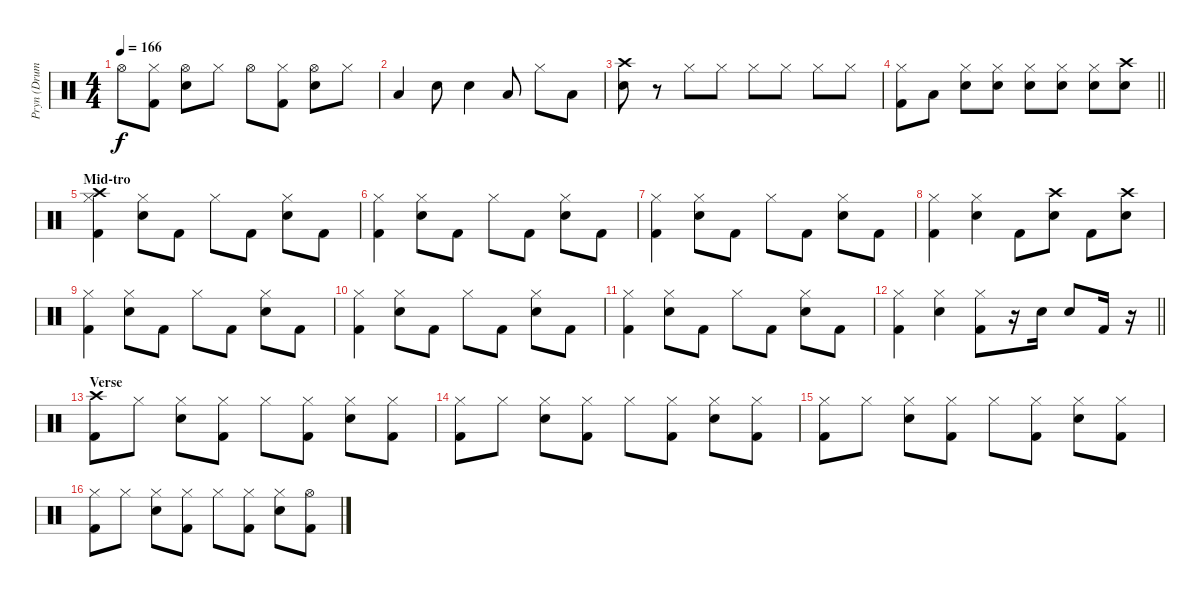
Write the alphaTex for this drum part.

\track ("Pryn (Drums)" "Pryn (Drum") {instrument percussion}
\staff {score}
\articulation defaults
\ts (4 4)
\tempo 166
\clef neutral
\ks c "Hi-Hat (open)".8{dy f}
("Hi-Hat (closed)" "Kick (hit) 2").8 ("Hi-Hat (open)" "Snare (hit) 2").8 "Hi-Hat (closed)".8 "Hi-Hat (open)".8 ("Hi-Hat (closed)" "Kick (hit) 2").8 ("Hi-Hat (open)" "Snare (hit) 2").8 "Hi-Hat (closed)".8 |
"Low Floor Tom (hit)".4 "Snare (hit) 2".8 "Electric Snare (hit)".4 "Low Floor Tom (hit)".8 "Hi-Hat (closed)".8 "Low Floor Tom (hit)".8 |
("Crash high (hit)" "Snare (hit) 2").8 r.8 "Hi-Hat (closed)".8 "Hi-Hat (closed)".8 "Hi-Hat (closed)".8 "Hi-Hat (closed)".8 "Hi-Hat (closed)".8 "Hi-Hat (closed)".8 |
\barLineRight lightlight
("Hi-Hat (closed)" "Kick (hit) 2").8 "Low Floor Tom (hit)".8 ("Hi-Hat (closed)" "Snare (hit) 2").8 ("Hi-Hat (closed)" "Snare (hit) 2").8 ("Hi-Hat (closed)" "Snare (hit) 2").8 ("Hi-Hat (closed)" "Snare (hit) 2").8 ("Hi-Hat (closed)" "Snare (hit) 2").8 ("Crash high (hit)" "Snare (hit) 2").8 |
\section ("" "Mid-tro")
("Hi-Hat (closed)" "Crash high (hit)" "Kick (hit) 2").4 ("Hi-Hat (closed)" "Snare (hit) 2").8 "Kick (hit) 2".8 "Hi-Hat (closed)".8 "Kick (hit) 2".8 ("Hi-Hat (closed)" "Snare (hit) 2").8 "Kick (hit) 2".8 |
("Hi-Hat (closed)" "Kick (hit) 2").4 ("Hi-Hat (closed)" "Snare (hit) 2").8 "Kick (hit) 2".8 "Hi-Hat (closed)".8 "Kick (hit) 2".8 ("Hi-Hat (closed)" "Snare (hit) 2").8 "Kick (hit) 2".8 |
("Hi-Hat (closed)" "Kick (hit) 2").4 ("Hi-Hat (closed)" "Snare (hit) 2").8 "Kick (hit) 2".8 "Hi-Hat (closed)".8 "Kick (hit) 2".8 ("Hi-Hat (closed)" "Snare (hit) 2").8 "Kick (hit) 2".8 |
("Hi-Hat (closed)" "Kick (hit) 2").4 ("Hi-Hat (closed)" "Snare (hit) 2").4 "Kick (hit) 2".8 ("Electric Snare (hit)" "Crash high (hit)").8 "Kick (hit) 2".8 ("Electric Snare (hit)" "Crash high (hit)").8 |
("Hi-Hat (closed)" "Kick (hit) 2").4 ("Hi-Hat (closed)" "Snare (hit) 2").8 "Kick (hit) 2".8 "Hi-Hat (closed)".8 "Kick (hit) 2".8 ("Hi-Hat (closed)" "Snare (hit) 2").8 "Kick (hit) 2".8 |
("Hi-Hat (closed)" "Kick (hit) 2").4 ("Hi-Hat (closed)" "Snare (hit) 2").8 "Kick (hit) 2".8 "Hi-Hat (closed)".8 "Kick (hit) 2".8 ("Hi-Hat (closed)" "Snare (hit) 2").8 "Kick (hit) 2".8 |
("Hi-Hat (closed)" "Kick (hit) 2").4 ("Hi-Hat (closed)" "Snare (hit) 2").8 "Kick (hit) 2".8 "Hi-Hat (closed)".8 "Kick (hit) 2".8 ("Hi-Hat (closed)" "Snare (hit) 2").8 "Kick (hit) 2".8 |
\barLineRight lightlight
("Hi-Hat (closed)" "Kick (hit) 2").4 ("Hi-Hat (closed)" "Snare (hit) 2").4 ("Kick (hit) 2" "Hi-Hat (closed)").8 r.16 "Snare (hit) 2".16 "Snare (hit) 2".8 "Kick (hit) 2".16 r.16 |
\section ("" "Verse")
("Crash high (hit)" "Kick (hit) 2").8 "Hi-Hat (closed)".8 ("Hi-Hat (closed)" "Snare (hit) 2").8 ("Hi-Hat (closed)" "Kick (hit) 2").8 "Hi-Hat (closed)".8 ("Kick (hit) 2" "Hi-Hat (closed)").8 ("Hi-Hat (closed)" "Snare (hit) 2").8 ("Hi-Hat (closed)" "Kick (hit) 2").8 |
("Hi-Hat (closed)" "Kick (hit) 2").8 "Hi-Hat (closed)".8 ("Hi-Hat (closed)" "Snare (hit) 2").8 ("Hi-Hat (closed)" "Kick (hit) 2").8 "Hi-Hat (closed)".8 ("Kick (hit) 2" "Hi-Hat (closed)").8 ("Hi-Hat (closed)" "Snare (hit) 2").8 ("Hi-Hat (closed)" "Kick (hit) 2").8 |
("Hi-Hat (closed)" "Kick (hit) 2").8 "Hi-Hat (closed)".8 ("Hi-Hat (closed)" "Snare (hit) 2").8 ("Hi-Hat (closed)" "Kick (hit) 2").8 "Hi-Hat (closed)".8 ("Kick (hit) 2" "Hi-Hat (closed)").8 ("Hi-Hat (closed)" "Snare (hit) 2").8 ("Hi-Hat (closed)" "Kick (hit) 2").8 |
("Hi-Hat (closed)" "Kick (hit) 2").8 "Hi-Hat (closed)".8 ("Hi-Hat (closed)" "Snare (hit) 2").8 ("Hi-Hat (closed)" "Kick (hit) 2").8 "Hi-Hat (closed)".8 ("Kick (hit) 2" "Hi-Hat (closed)").8 ("Hi-Hat (closed)" "Snare (hit) 2").8 ("Hi-Hat (open)" "Kick (hit) 2").8
